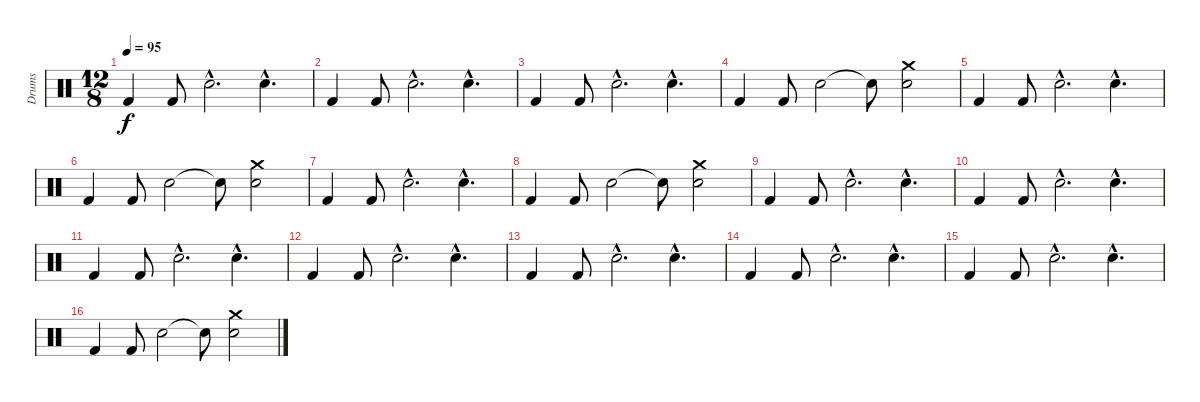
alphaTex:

\track ("Drums" "Drums") {instrument percussion}
\staff {score}
\articulation defaults
\ts (12 8)
\tempo 95
\clef neutral
\ks c "Kick (hit) 2".4{dy f} "Kick (hit) 2".8 "Snare (hit) 2"{hac}.2{d} "Snare (hit) 2"{hac}.4{d}
|
"Kick (hit) 2".4 "Kick (hit) 2".8 "Snare (hit) 2"{hac}.2{d} "Snare (hit) 2"{hac}.4{d} |
"Kick (hit) 2".4 "Kick (hit) 2".8 "Snare (hit) 2"{hac}.2{d} "Snare (hit) 2"{hac}.4{d} |
"Kick (hit) 2".4 "Kick (hit) 2".8 "Snare (hit) 2".2 "Snare (hit)"{t}.8 ("Snare (hit) 2" "Crash medium (hit)").2 |
"Kick (hit) 2".4 "Kick (hit) 2".8 "Snare (hit) 2"{hac}.2{d} "Snare (hit) 2"{hac}.4{d} |
"Kick (hit) 2".4 "Kick (hit) 2".8 "Snare (hit) 2".2 "Snare (hit)"{t}.8 ("Snare (hit) 2" "Crash medium (hit)").2 |
"Kick (hit) 2".4 "Kick (hit) 2".8 "Snare (hit) 2"{hac}.2{d} "Snare (hit) 2"{hac}.4{d} |
"Kick (hit) 2".4 "Kick (hit) 2".8 "Snare (hit) 2".2 "Snare (hit)"{t}.8 ("Snare (hit) 2" "Crash medium (hit)").2 |
"Kick (hit) 2".4 "Kick (hit) 2".8 "Snare (hit) 2"{hac}.2{d} "Snare (hit) 2"{hac}.4{d} |
"Kick (hit) 2".4 "Kick (hit) 2".8 "Snare (hit) 2"{hac}.2{d} "Snare (hit) 2"{hac}.4{d} |
"Kick (hit) 2".4 "Kick (hit) 2".8 "Snare (hit) 2"{hac}.2{d} "Snare (hit) 2"{hac}.4{d} |
"Kick (hit) 2".4 "Kick (hit) 2".8 "Snare (hit) 2"{hac}.2{d} "Snare (hit) 2"{hac}.4{d} |
"Kick (hit) 2".4 "Kick (hit) 2".8 "Snare (hit) 2"{hac}.2{d} "Snare (hit) 2"{hac}.4{d} |
"Kick (hit) 2".4 "Kick (hit) 2".8 "Snare (hit) 2"{hac}.2{d} "Snare (hit) 2"{hac}.4{d} |
"Kick (hit) 2".4 "Kick (hit) 2".8 "Snare (hit) 2"{hac}.2{d} "Snare (hit) 2"{hac}.4{d} |
"Kick (hit) 2".4 "Kick (hit) 2".8 "Snare (hit) 2".2 "Snare (hit)"{t}.8 ("Snare (hit) 2" "Crash medium (hit)").2
